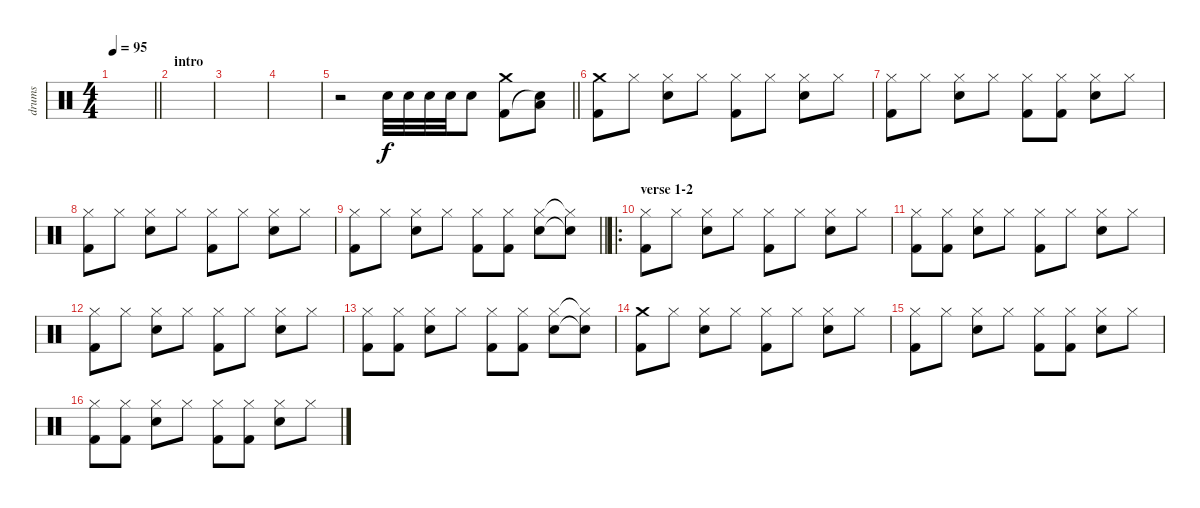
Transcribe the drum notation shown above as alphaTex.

\track ("drums" "drums") {instrument percussion}
\staff {score}
\articulation defaults
\ts (4 4)
\tempo 95
\clef neutral
\barLineRight lightlight
\ks c
|
\section ("" "intro")
|
|
|
\barLineRight lightlight
r.2 "Snare (hit) 2".32 "Snare (hit) 2".32 "Snare (hit) 2".32 "Snare (hit) 2".32 "Snare (hit) 2".8 ("Crash medium (hit)" "Kick (hit) 2").8 ("Low Tom (hit)" "Snare (hit)"{t}).8 |
("Crash medium (hit)" "Kick (hit) 2").8 "Hi-Hat (closed)".8 ("Hi-Hat (closed)" "Snare (hit) 2").8 "Hi-Hat (closed)".8 ("Hi-Hat (closed)" "Kick (hit) 2").8 "Hi-Hat (closed)".8 ("Hi-Hat (closed)" "Snare (hit) 2").8 "Hi-Hat (closed)".8 |
("Hi-Hat (closed)" "Kick (hit) 2").8 "Hi-Hat (closed)".8 ("Hi-Hat (closed)" "Snare (hit) 2").8 "Hi-Hat (closed)".8 ("Hi-Hat (closed)" "Kick (hit) 2").8 ("Hi-Hat (closed)" "Kick (hit) 2").8 ("Hi-Hat (closed)" "Snare (hit) 2").8 "Hi-Hat (closed)".8 |
("Hi-Hat (closed)" "Kick (hit) 2").8 "Hi-Hat (closed)".8 ("Hi-Hat (closed)" "Snare (hit) 2").8 "Hi-Hat (closed)".8 ("Hi-Hat (closed)" "Kick (hit) 2").8 "Hi-Hat (closed)".8 ("Hi-Hat (closed)" "Snare (hit) 2").8 "Hi-Hat (closed)".8 |
\barLineRight lightlight
("Hi-Hat (closed)" "Kick (hit) 2").8 "Hi-Hat (closed)".8 ("Hi-Hat (closed)" "Snare (hit) 2").8 "Hi-Hat (closed)".8 ("Hi-Hat (closed)" "Kick (hit) 2").8 ("Hi-Hat (closed)" "Kick (hit) 2").8 ("Hi-Hat (closed)" "Snare (hit) 2").8 ("Hi-Hat (closed)"{t} "Snare (hit)"{t}).8 |
\ro
\section ("" "verse 1-2")
("Hi-Hat (closed)" "Kick (hit) 2").8 "Hi-Hat (closed)".8 ("Hi-Hat (closed)" "Snare (hit) 2").8 "Hi-Hat (closed)".8 ("Hi-Hat (closed)" "Kick (hit) 2").8 "Hi-Hat (closed)".8 ("Hi-Hat (closed)" "Snare (hit) 2").8 "Hi-Hat (closed)".8 |
("Hi-Hat (closed)" "Kick (hit) 2").8 ("Hi-Hat (closed)" "Kick (hit) 2").8 ("Hi-Hat (closed)" "Snare (hit) 2").8 "Hi-Hat (closed)".8 ("Hi-Hat (closed)" "Kick (hit) 2").8 "Hi-Hat (closed)".8 ("Hi-Hat (closed)" "Snare (hit) 2").8 "Hi-Hat (closed)".8 |
("Hi-Hat (closed)" "Kick (hit) 2").8 "Hi-Hat (closed)".8 ("Hi-Hat (closed)" "Snare (hit) 2").8 "Hi-Hat (closed)".8 ("Hi-Hat (closed)" "Kick (hit) 2").8 "Hi-Hat (closed)".8 ("Hi-Hat (closed)" "Snare (hit) 2").8 "Hi-Hat (closed)".8 |
("Hi-Hat (closed)" "Kick (hit) 2").8 ("Hi-Hat (closed)" "Kick (hit) 2").8 ("Hi-Hat (closed)" "Snare (hit) 2").8 "Hi-Hat (closed)".8 ("Hi-Hat (closed)" "Kick (hit) 2").8 ("Hi-Hat (closed)" "Kick (hit) 2").8 ("Hi-Hat (closed)" "Snare (hit) 2").8 ("Hi-Hat (closed)"{t} "Snare (hit)"{t}).8 |
("Crash medium (hit)" "Kick (hit) 2").8 "Hi-Hat (closed)".8 ("Hi-Hat (closed)" "Snare (hit) 2").8 "Hi-Hat (closed)".8 ("Hi-Hat (closed)" "Kick (hit) 2").8 "Hi-Hat (closed)".8 ("Hi-Hat (closed)" "Snare (hit) 2").8 "Hi-Hat (closed)".8 |
("Hi-Hat (closed)" "Kick (hit) 2").8 "Hi-Hat (closed)".8 ("Hi-Hat (closed)" "Snare (hit) 2").8 "Hi-Hat (closed)".8 ("Hi-Hat (closed)" "Kick (hit) 2").8 ("Hi-Hat (closed)" "Kick (hit) 2").8 ("Hi-Hat (closed)" "Snare (hit) 2").8 "Hi-Hat (closed)".8 |
("Hi-Hat (closed)" "Kick (hit) 2").8 ("Hi-Hat (closed)" "Kick (hit) 2").8 ("Hi-Hat (closed)" "Snare (hit) 2").8 "Hi-Hat (closed)".8 ("Hi-Hat (closed)" "Kick (hit) 2").8 ("Hi-Hat (closed)" "Kick (hit) 2").8 ("Hi-Hat (closed)" "Snare (hit) 2").8 "Hi-Hat (closed)".8
